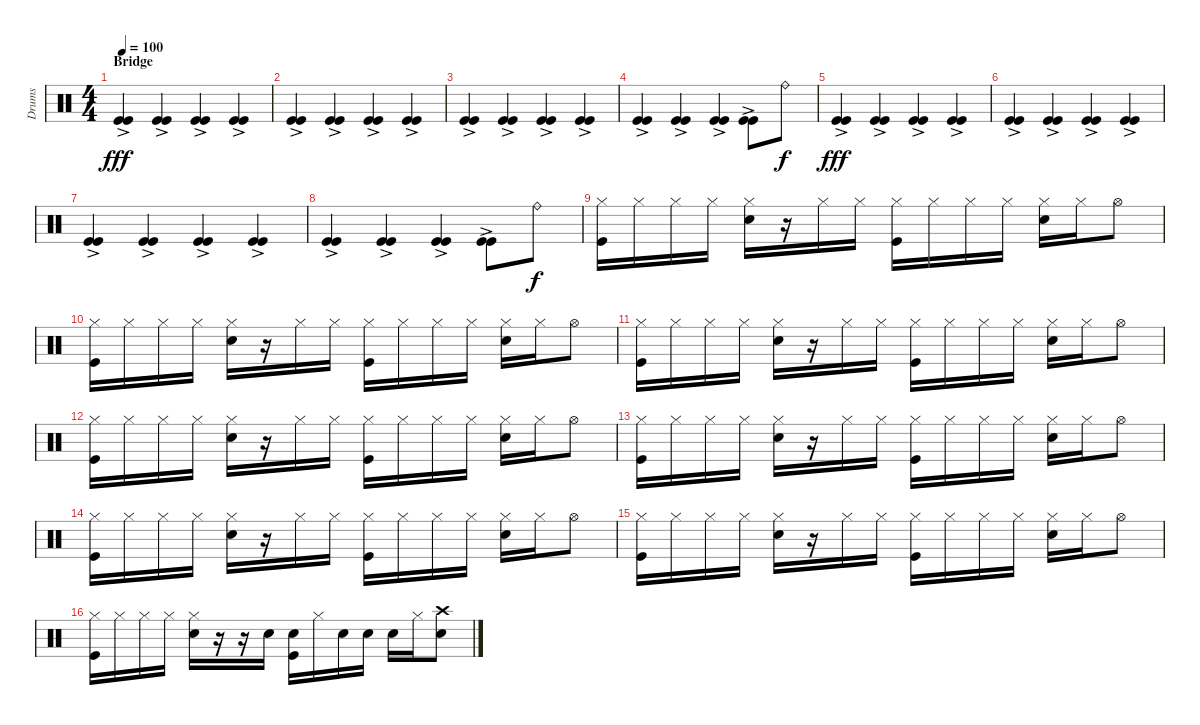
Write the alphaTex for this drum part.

\track ("Drums" "Drums") {instrument percussion}
\staff {score}
\articulation defaults
\ts (4 4)
\section ("" "Bridge")
\tempo 100
\clef neutral
\ks c
("Kick (hit)"{ac} "Kick (hit)").4{dy fff} ("Kick (hit)"{ac} "Kick (hit)").4 ("Kick (hit)"{ac} "Kick (hit)").4 ("Kick (hit)"{ac} "Kick (hit)").4 |
("Kick (hit)"{ac} "Kick (hit)").4 ("Kick (hit)"{ac} "Kick (hit)").4 ("Kick (hit)"{ac} "Kick (hit)").4 ("Kick (hit)"{ac} "Kick (hit)").4 |
("Kick (hit)"{ac} "Kick (hit)").4 ("Kick (hit)"{ac} "Kick (hit)").4 ("Kick (hit)"{ac} "Kick (hit)").4 ("Kick (hit)"{ac} "Kick (hit)").4 |
("Kick (hit)"{ac} "Kick (hit)").4 ("Kick (hit)"{ac} "Kick (hit)").4 ("Kick (hit)"{ac} "Kick (hit)").4 ("Kick (hit)"{ac} "Kick (hit)").8 "Ride (bell)".8{dy f} |
("Kick (hit)"{ac} "Kick (hit)").4{dy fff} ("Kick (hit)"{ac} "Kick (hit)").4 ("Kick (hit)"{ac} "Kick (hit)").4 ("Kick (hit)"{ac} "Kick (hit)").4 |
("Kick (hit)"{ac} "Kick (hit)").4 ("Kick (hit)"{ac} "Kick (hit)").4 ("Kick (hit)"{ac} "Kick (hit)").4 ("Kick (hit)"{ac} "Kick (hit)").4 |
("Kick (hit)"{ac} "Kick (hit)").4 ("Kick (hit)"{ac} "Kick (hit)").4 ("Kick (hit)"{ac} "Kick (hit)").4 ("Kick (hit)"{ac} "Kick (hit)").4 |
("Kick (hit)"{ac} "Kick (hit)").4 ("Kick (hit)"{ac} "Kick (hit)").4 ("Kick (hit)"{ac} "Kick (hit)").4 ("Kick (hit)"{ac} "Kick (hit)").8 "Ride (bell)".8{dy f} |
("Hi-Hat (closed)" "Kick (hit)").16 "Hi-Hat (closed)".16 "Hi-Hat (closed)".16 "Hi-Hat (closed)".16 ("Hi-Hat (closed)" "Snare (hit) 2").16 r.16 "Hi-Hat (closed)".16 "Hi-Hat (closed)".16 ("Hi-Hat (closed)" "Kick (hit)").16 "Hi-Hat (closed)".16 "Hi-Hat (closed)".16 "Hi-Hat (closed)".16 ("Hi-Hat (closed)" "Snare (hit) 2").16 "Hi-Hat (closed)".16 "Hi-Hat (open)".8 |
("Hi-Hat (closed)" "Kick (hit)").16 "Hi-Hat (closed)".16 "Hi-Hat (closed)".16 "Hi-Hat (closed)".16 ("Hi-Hat (closed)" "Snare (hit) 2").16 r.16 "Hi-Hat (closed)".16 "Hi-Hat (closed)".16 ("Hi-Hat (closed)" "Kick (hit)").16 "Hi-Hat (closed)".16 "Hi-Hat (closed)".16 "Hi-Hat (closed)".16 ("Hi-Hat (closed)" "Snare (hit) 2").16 "Hi-Hat (closed)".16 "Hi-Hat (open)".8 |
("Hi-Hat (closed)" "Kick (hit)").16 "Hi-Hat (closed)".16 "Hi-Hat (closed)".16 "Hi-Hat (closed)".16 ("Hi-Hat (closed)" "Snare (hit) 2").16 r.16 "Hi-Hat (closed)".16 "Hi-Hat (closed)".16 ("Hi-Hat (closed)" "Kick (hit)").16 "Hi-Hat (closed)".16 "Hi-Hat (closed)".16 "Hi-Hat (closed)".16 ("Hi-Hat (closed)" "Snare (hit) 2").16 "Hi-Hat (closed)".16 "Hi-Hat (open)".8 |
("Hi-Hat (closed)" "Kick (hit)").16 "Hi-Hat (closed)".16 "Hi-Hat (closed)".16 "Hi-Hat (closed)".16 ("Hi-Hat (closed)" "Snare (hit) 2").16 r.16 "Hi-Hat (closed)".16 "Hi-Hat (closed)".16 ("Hi-Hat (closed)" "Kick (hit)").16 "Hi-Hat (closed)".16 "Hi-Hat (closed)".16 "Hi-Hat (closed)".16 ("Hi-Hat (closed)" "Snare (hit) 2").16 "Hi-Hat (closed)".16 "Hi-Hat (open)".8 |
("Hi-Hat (closed)" "Kick (hit)").16 "Hi-Hat (closed)".16 "Hi-Hat (closed)".16 "Hi-Hat (closed)".16 ("Hi-Hat (closed)" "Snare (hit) 2").16 r.16 "Hi-Hat (closed)".16 "Hi-Hat (closed)".16 ("Hi-Hat (closed)" "Kick (hit)").16 "Hi-Hat (closed)".16 "Hi-Hat (closed)".16 "Hi-Hat (closed)".16 ("Hi-Hat (closed)" "Snare (hit) 2").16 "Hi-Hat (closed)".16 "Hi-Hat (open)".8 |
("Hi-Hat (closed)" "Kick (hit)").16 "Hi-Hat (closed)".16 "Hi-Hat (closed)".16 "Hi-Hat (closed)".16 ("Hi-Hat (closed)" "Snare (hit) 2").16 r.16 "Hi-Hat (closed)".16 "Hi-Hat (closed)".16 ("Hi-Hat (closed)" "Kick (hit)").16 "Hi-Hat (closed)".16 "Hi-Hat (closed)".16 "Hi-Hat (closed)".16 ("Hi-Hat (closed)" "Snare (hit) 2").16 "Hi-Hat (closed)".16 "Hi-Hat (open)".8 |
("Hi-Hat (closed)" "Kick (hit)").16 "Hi-Hat (closed)".16 "Hi-Hat (closed)".16 "Hi-Hat (closed)".16 ("Hi-Hat (closed)" "Snare (hit) 2").16 r.16 "Hi-Hat (closed)".16 "Hi-Hat (closed)".16 ("Hi-Hat (closed)" "Kick (hit)").16 "Hi-Hat (closed)".16 "Hi-Hat (closed)".16 "Hi-Hat (closed)".16 ("Hi-Hat (closed)" "Snare (hit) 2").16 "Hi-Hat (closed)".16 "Hi-Hat (open)".8 |
("Hi-Hat (closed)" "Kick (hit)").16 "Hi-Hat (closed)".16 "Hi-Hat (closed)".16 "Hi-Hat (closed)".16 ("Hi-Hat (closed)" "Snare (hit) 2").16 r.16 r.16 "Snare (hit) 2".16 ("Snare (hit) 2" "Kick (hit)").16 "Hi-Hat (closed)".16 "Snare (hit) 2".16 "Snare (hit) 2".16 "Snare (hit) 2".16 "Hi-Hat (closed)".16 ("Crash high (hit)" "Snare (hit) 2").8
